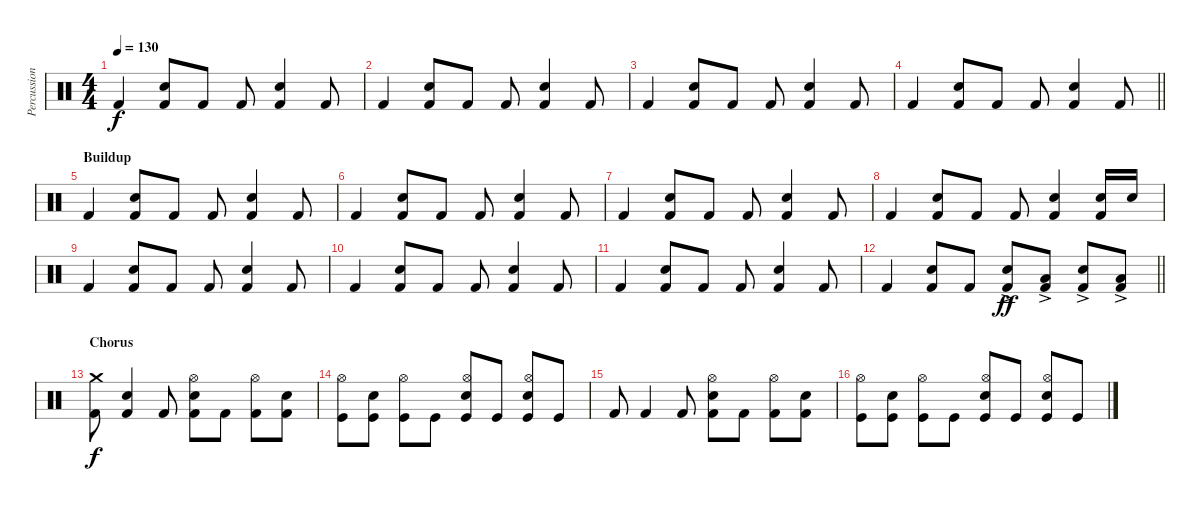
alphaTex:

\track ("Percussion" "Percussion") {instrument percussion}
\staff {score}
\articulation defaults
\ts (4 4)
\tempo 130
\clef neutral
\ks c "Kick (hit) 2".4{dy f}
("Snare (hit) 2" "Kick (hit) 2").8 "Kick (hit) 2".8 "Kick (hit) 2".8 ("Snare (hit) 2" "Kick (hit) 2").4 "Kick (hit) 2".8 |
"Kick (hit) 2".4 ("Snare (hit) 2" "Kick (hit) 2").8 "Kick (hit) 2".8 "Kick (hit) 2".8 ("Snare (hit) 2" "Kick (hit) 2").4 "Kick (hit) 2".8 |
"Kick (hit) 2".4 ("Snare (hit) 2" "Kick (hit) 2").8 "Kick (hit) 2".8 "Kick (hit) 2".8 ("Snare (hit) 2" "Kick (hit) 2").4 "Kick (hit) 2".8 |
\barLineRight lightlight "Kick (hit) 2".4
("Snare (hit) 2" "Kick (hit) 2").8 "Kick (hit) 2".8 "Kick (hit) 2".8 ("Snare (hit) 2" "Kick (hit) 2").4 "Kick (hit) 2".8 |
\section ("" "Buildup")
"Kick (hit) 2".4 ("Snare (hit) 2" "Kick (hit) 2").8 "Kick (hit) 2".8 "Kick (hit) 2".8 ("Snare (hit) 2" "Kick (hit) 2").4 "Kick (hit) 2".8 |
"Kick (hit) 2".4 ("Snare (hit) 2" "Kick (hit) 2").8 "Kick (hit) 2".8 "Kick (hit) 2".8 ("Snare (hit) 2" "Kick (hit) 2").4 "Kick (hit) 2".8 |
"Kick (hit) 2".4 ("Snare (hit) 2" "Kick (hit) 2").8 "Kick (hit) 2".8 "Kick (hit) 2".8 ("Snare (hit) 2" "Kick (hit) 2").4 "Kick (hit) 2".8 |
"Kick (hit) 2".4 ("Snare (hit) 2" "Kick (hit) 2").8 "Kick (hit) 2".8 "Kick (hit) 2".8 ("Snare (hit) 2" "Kick (hit) 2").4 ("Snare (hit) 2" "Kick (hit) 2").16 "Snare (hit) 2".16 |
"Kick (hit) 2".4 ("Snare (hit) 2" "Kick (hit) 2").8 "Kick (hit) 2".8 "Kick (hit) 2".8 ("Snare (hit) 2" "Kick (hit) 2").4 "Kick (hit) 2".8 |
"Kick (hit) 2".4 ("Snare (hit) 2" "Kick (hit) 2").8 "Kick (hit) 2".8 "Kick (hit) 2".8 ("Snare (hit) 2" "Kick (hit) 2").4 "Kick (hit) 2".8 |
"Kick (hit) 2".4 ("Snare (hit) 2" "Kick (hit) 2").8 "Kick (hit) 2".8 "Kick (hit) 2".8 ("Snare (hit) 2" "Kick (hit) 2").4 "Kick (hit) 2".8 |
\barLineRight lightlight "Kick (hit) 2".4
("Snare (hit) 2" "Kick (hit) 2").8 "Kick (hit) 2".8 ("Snare (hit) 2"{ac} "Kick (hit) 2").8{dy ff} ("Low Floor Tom (hit)"{ac} "Kick (hit) 2").8 ("Snare (hit) 2"{ac} "Kick (hit) 2").8 ("Low Floor Tom (hit)"{ac} "Kick (hit) 2").8 |
\section ("" "Chorus")
("Crash medium (hit)" "Kick (hit) 2").8{dy f} ("Snare (hit) 2" "Kick (hit) 2").4 "Kick (hit) 2".8 ("Hi-Hat (open)" "Snare (hit) 2" "Kick (hit) 2").8 "Kick (hit) 2".8 ("Hi-Hat (open)" "Kick (hit) 2").8 ("Snare (hit) 2" "Kick (hit) 2").8 |
("Hi-Hat (open)" "Kick (hit)").8 ("Snare (hit) 2" "Kick (hit)").8 ("Hi-Hat (open)" "Kick (hit)").8 "Kick (hit)".8 ("Hi-Hat (open)" "Snare (hit) 2" "Kick (hit)").8 "Kick (hit)".8 ("Hi-Hat (open)" "Snare (hit) 2" "Kick (hit)").8 "Kick (hit)".8 |
"Kick (hit) 2".8 "Kick (hit) 2".4 "Kick (hit) 2".8 ("Hi-Hat (open)" "Snare (hit) 2" "Kick (hit) 2").8 "Kick (hit) 2".8 ("Hi-Hat (open)" "Kick (hit) 2").8 ("Snare (hit) 2" "Kick (hit) 2").8 |
("Hi-Hat (open)" "Kick (hit)").8 ("Snare (hit) 2" "Kick (hit)").8 ("Hi-Hat (open)" "Kick (hit)").8 "Kick (hit)".8 ("Hi-Hat (open)" "Snare (hit) 2" "Kick (hit)").8 "Kick (hit)".8 ("Hi-Hat (open)" "Snare (hit) 2" "Kick (hit)").8 "Kick (hit)".8
